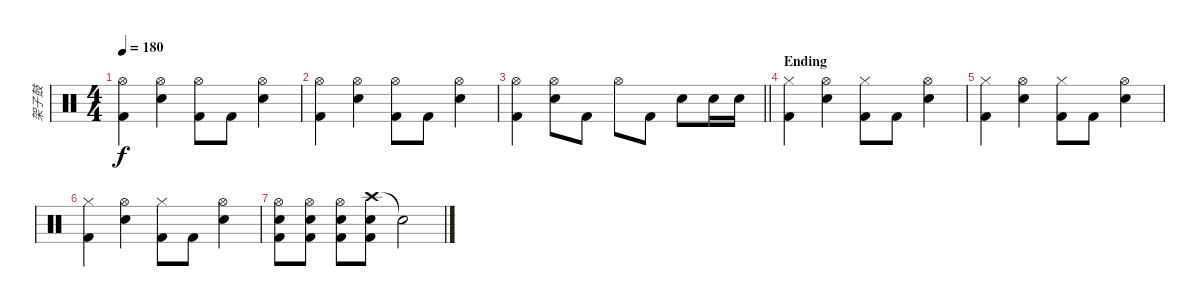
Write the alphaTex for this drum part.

\track ("架子鼓" "架子鼓") {instrument percussion}
\staff {score}
\articulation defaults
\ts (4 4)
\tempo 180
\clef neutral
\ks c
("Hi-Hat (open)" "Kick (hit) 2").4{dy f} ("Hi-Hat (open)" "Snare (hit) 2").4 ("Hi-Hat (open)" "Kick (hit) 2").8 "Kick (hit) 2".8 ("Hi-Hat (open)" "Snare (hit) 2").4 |
("Hi-Hat (open)" "Kick (hit) 2").4 ("Hi-Hat (open)" "Snare (hit) 2").4 ("Hi-Hat (open)" "Kick (hit) 2").8 "Kick (hit) 2".8 ("Hi-Hat (open)" "Snare (hit) 2").4 |
\barLineRight lightlight
("Hi-Hat (open)" "Kick (hit) 2").4 ("Hi-Hat (open)" "Snare (hit) 2").8 "Kick (hit) 2".8 "Hi-Hat (open)".8 "Kick (hit) 2".8 "Snare (hit) 2".8 "Snare (hit) 2".16 "Snare (hit) 2".16 |
\section ("" "Ending")
("Hi-Hat (closed)" "Kick (hit) 2").4 ("Hi-Hat (open)" "Snare (hit) 2").4 ("Hi-Hat (closed)" "Kick (hit) 2").8 "Kick (hit) 2".8 ("Hi-Hat (open)" "Snare (hit) 2").4 |
("Hi-Hat (closed)" "Kick (hit) 2").4 ("Hi-Hat (open)" "Snare (hit) 2").4 ("Hi-Hat (closed)" "Kick (hit) 2").8 "Kick (hit) 2".8 ("Hi-Hat (open)" "Snare (hit) 2").4 |
("Hi-Hat (closed)" "Kick (hit) 2").4 ("Hi-Hat (open)" "Snare (hit) 2").4 ("Hi-Hat (closed)" "Kick (hit) 2").8 "Kick (hit) 2".8 ("Hi-Hat (open)" "Snare (hit) 2").4 |
("Hi-Hat (open)" "Snare (hit) 2" "Kick (hit) 2").8 ("Hi-Hat (open)" "Snare (hit) 2" "Kick (hit) 2").8 ("Hi-Hat (open)" "Snare (hit) 2" "Kick (hit) 2").8 ("Crash high (hit)" "Snare (hit) 2" "Kick (hit) 2").8 "Snare (hit) 2"{t}.2
